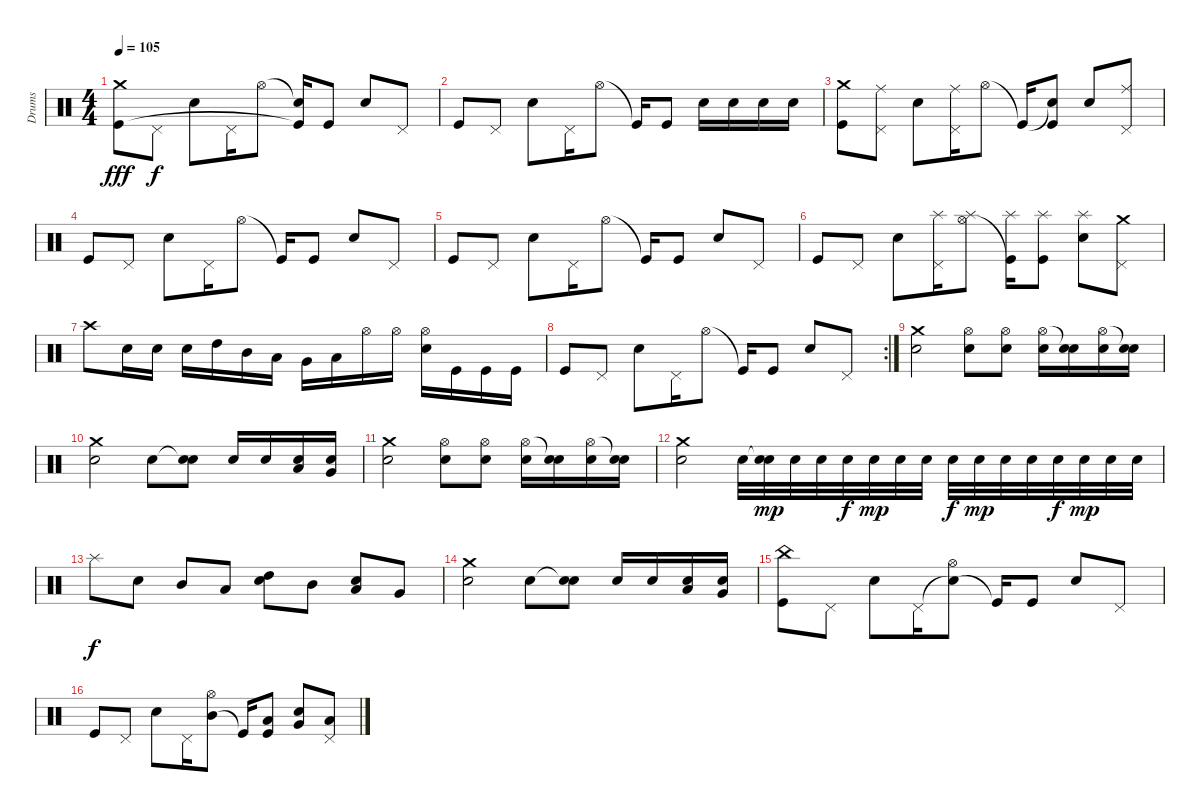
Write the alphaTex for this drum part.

\track ("Drums" "Drums") {instrument percussion}
\staff {score}
\articulation defaults
\ts (4 4)
\tempo 105
\clef neutral
\ks c
("Crash medium (hit)" "Kick (hit)").8{dy fff} "Pedal Hi-Hat (hit)".8{dy f} "Snare (hit) 2".8 "Pedal Hi-Hat (hit)".16 "Hi-Hat (open)".8 ("Snare (hit)"{t} "Kick (hit)"{t}).16 "Kick (hit)".8 "Snare (hit) 2".8 "Pedal Hi-Hat (hit)".8 |
"Kick (hit)".8 "Pedal Hi-Hat (hit)".8 "Snare (hit) 2".8 "Pedal Hi-Hat (hit)".16 "Hi-Hat (open)".8 "Kick (hit)"{t}.16 "Kick (hit)".8 "Snare (hit) 2".16 "Snare (hit) 2".16 "Snare (hit) 2".16 "Snare (hit) 2".16 |
("Crash medium (hit)" "Kick (hit)").8 ("Ride (middle)" "Pedal Hi-Hat (hit)").8 "Snare (hit) 2".8 ("Ride (middle)" "Pedal Hi-Hat (hit)").16 "Hi-Hat (open)".8 "Kick (hit)"{t}.16 ("Snare (hit)"{t} "Kick (hit)").8 "Snare (hit) 2".8 ("Ride (middle)" "Pedal Hi-Hat (hit)").8 |
"Kick (hit)".8 "Pedal Hi-Hat (hit)".8 "Snare (hit) 2".8 "Pedal Hi-Hat (hit)".16 "Hi-Hat (open)".8 "Kick (hit)"{t}.16 "Kick (hit)".8 "Snare (hit) 2".8 "Pedal Hi-Hat (hit)".8 |
"Kick (hit)".8{volume 16} "Pedal Hi-Hat (hit)".8 "Snare (hit) 2".8 "Pedal Hi-Hat (hit)".16 "Hi-Hat (open)".8 "Kick (hit)"{t}.16 "Kick (hit)".8 "Snare (hit) 2".8 "Pedal Hi-Hat (hit)".8 |
"Kick (hit)".8 "Pedal Hi-Hat (hit)".8 "Snare (hit) 2".8 ("Splash (hit)" "Pedal Hi-Hat (hit)").16 ("Splash (hit)" "Hi-Hat (open)").8 ("Splash (hit)" "Kick (hit)"{t}).16 ("Splash (hit)" "Kick (hit)").8 ("Splash (hit)" "Snare (hit) 2").8 ("Crash medium (hit)" "Pedal Hi-Hat (hit)").8 |
"Crash high (hit)".8 "Electric Snare (hit)".16 "Electric Snare (hit)".16 "Electric Snare (hit)".16 "High Tom (hit)".16 "Mid Tom (hit)".16 "Low Tom (hit)".16 "Very Low Tom (hit)".16 "Low Floor Tom (hit)".16 "Hi-Hat (open)".16 "Hi-Hat (open)".16 ("Hi-Hat (open)" "Snare (hit) 2").16 "Kick (hit)".16 "Kick (hit)".16 "Kick (hit)".16 |
\rc 2 "Kick (hit)".8 "Pedal Hi-Hat (hit)".8 "Snare (hit) 2".8 "Pedal Hi-Hat (hit)".16 "Hi-Hat (open)".8 "Kick (hit)"{t}.16 "Kick (hit)".8 "Snare (hit) 2".8 "Pedal Hi-Hat (hit)".8
|
("Crash medium (hit)" "Snare (hit) 2").2 ("Hi-Hat (open)" "Snare (hit) 2").8 ("Hi-Hat (open)" "Snare (hit) 2").8 ("Hi-Hat (open)" "Snare (hit) 2").16 ("Snare (hit)"{t} "Snare (hit) 2").16 ("Hi-Hat (open)" "Snare (hit) 2").16 ("Snare (hit)"{t} "Snare (hit) 2").16 |
("Crash medium (hit)" "Snare (hit) 2").2 "Snare (hit) 2".8 ("Snare (hit)"{t} "Snare (hit) 2").8 "Snare (hit) 2".16 "Snare (hit) 2".16 ("Low Tom (hit)" "Snare (hit) 2").16 ("Very Low Tom (hit)" "Snare (hit) 2").16 |
("Crash medium (hit)" "Snare (hit) 2").2 ("Hi-Hat (open)" "Snare (hit) 2").8 ("Hi-Hat (open)" "Snare (hit) 2").8 ("Hi-Hat (open)" "Snare (hit) 2").16 ("Snare (hit)"{t} "Snare (hit) 2").16 ("Hi-Hat (open)" "Snare (hit) 2").16 ("Snare (hit)"{t} "Snare (hit) 2").16 |
("Crash medium (hit)" "Snare (hit) 2").2 "Snare (hit) 2".32 ("Snare (hit)"{t} "Snare (hit) 2").32{dy mp} "Snare (hit) 2".32 "Snare (hit) 2".32 "Snare (hit) 2".32{dy f} "Snare (hit) 2".32{dy mp} "Snare (hit) 2".32 "Snare (hit) 2".32 "Snare (hit) 2".32{dy f} "Snare (hit) 2".32{dy mp} "Snare (hit) 2".32 "Snare (hit) 2".32 "Snare (hit) 2".32{dy f} "Snare (hit) 2".32{dy mp} "Snare (hit) 2".32 "Snare (hit) 2".32 |
"Splash (hit)".8{dy f} "Snare (hit) 2".8 "Mid Tom (hit)".8 "Low Tom (hit)".8 ("Snare (hit) 2" "High Tom (hit)").8 "Mid Tom (hit)".8 ("Snare (hit) 2" "Low Tom (hit)").8 "Very Low Tom (hit)".8 |
("Crash medium (hit)" "Snare (hit) 2").2 "Snare (hit) 2".8 ("Snare (hit)"{t} "Snare (hit) 2").8 "Snare (hit) 2".16 "Snare (hit) 2".16 ("Low Tom (hit)" "Snare (hit) 2").16 ("Very Low Tom (hit)" "Snare (hit) 2").16 |
("China (hit)" "Kick (hit)").8 "Pedal Hi-Hat (hit)".8 "Snare (hit) 2".8 "Pedal Hi-Hat (hit)".16 ("Snare (hit)"{t} "Hi-Hat (open)").8 "Kick (hit)"{t}.16 "Kick (hit)".8 "Snare (hit) 2".8 "Pedal Hi-Hat (hit)".8 |
"Kick (hit)".8 "Pedal Hi-Hat (hit)".8 "Snare (hit) 2".8 "Pedal Hi-Hat (hit)".16 ("Mid Tom (hit)" "Hi-Hat (open)").8 "Kick (hit)"{t}.16 ("Low Tom (hit)" "Kick (hit)").8 ("Very Low Tom (hit)" "Snare (hit) 2").8 ("Low Floor Tom (hit)" "Pedal Hi-Hat (hit)").8
